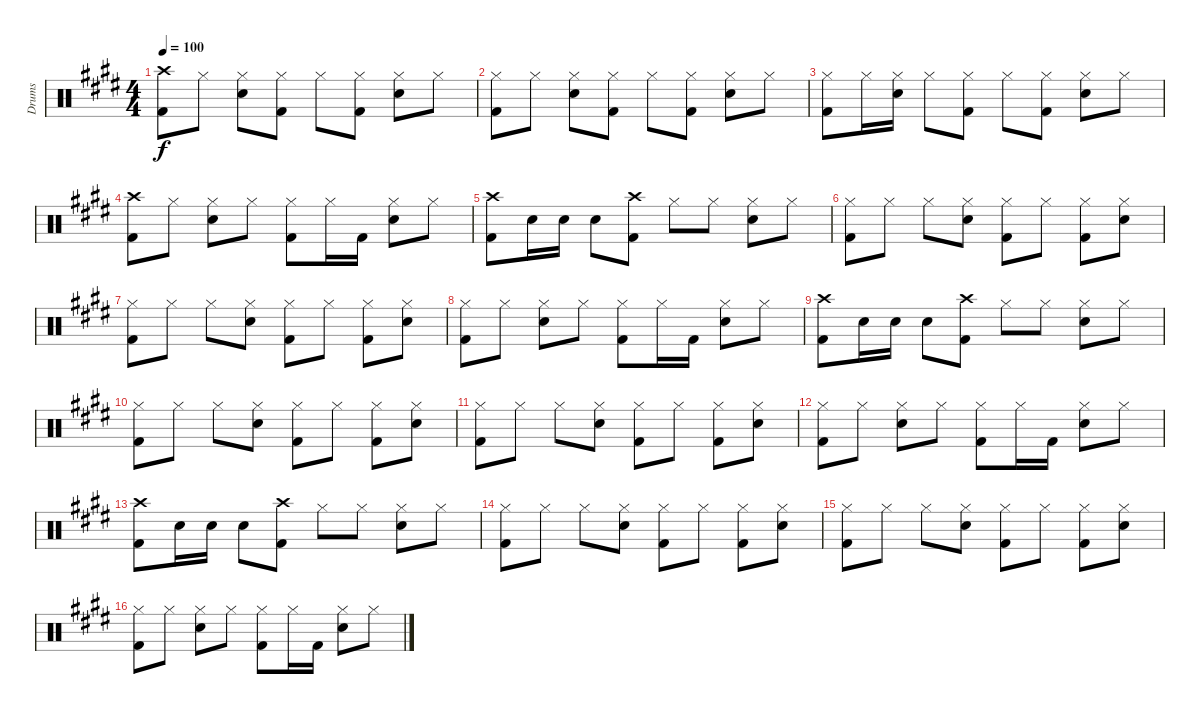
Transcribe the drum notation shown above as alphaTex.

\track ("Drums" "Drums") {instrument percussion}
\staff {score}
\articulation defaults
\ts (4 4)
\tempo 100
\clef neutral
\ks e
("Crash high (hit)" "Kick (hit) 2").8{dy f} "Hi-Hat (closed)".8 ("Hi-Hat (closed)" "Electric Snare (hit)").8 ("Hi-Hat (closed)" "Kick (hit) 2").8 "Hi-Hat (closed)".8 ("Hi-Hat (closed)" "Kick (hit) 2").8 ("Hi-Hat (closed)" "Electric Snare (hit)").8 "Hi-Hat (closed)".8 |
("Hi-Hat (closed)" "Kick (hit) 2").8 "Hi-Hat (closed)".8 ("Hi-Hat (closed)" "Electric Snare (hit)").8 ("Hi-Hat (closed)" "Kick (hit) 2").8 "Hi-Hat (closed)".8 ("Hi-Hat (closed)" "Kick (hit) 2").8 ("Hi-Hat (closed)" "Electric Snare (hit)").8 "Hi-Hat (closed)".8 |
("Hi-Hat (closed)" "Kick (hit) 2").8 "Hi-Hat (closed)".16 ("Hi-Hat (closed)" "Electric Snare (hit)").16 "Hi-Hat (closed)".8 ("Hi-Hat (closed)" "Kick (hit) 2").8 "Hi-Hat (closed)".8 ("Hi-Hat (closed)" "Kick (hit) 2").8 ("Hi-Hat (closed)" "Electric Snare (hit)").8 "Hi-Hat (closed)".8 |
("Crash high (hit)" "Kick (hit) 2").8 "Hi-Hat (closed)".8 ("Hi-Hat (closed)" "Electric Snare (hit)").8 "Hi-Hat (closed)".8 ("Hi-Hat (closed)" "Kick (hit) 2").8 "Hi-Hat (closed)".16 "Kick (hit) 2".16 ("Hi-Hat (closed)" "Electric Snare (hit)").8 "Hi-Hat (closed)".8 |
("Crash high (hit)" "Kick (hit) 2").8 "Electric Snare (hit)".16 "Electric Snare (hit)".16 "Electric Snare (hit)".8 ("Crash high (hit)" "Kick (hit) 2").8 "Hi-Hat (closed)".8 "Hi-Hat (closed)".8 ("Hi-Hat (closed)" "Electric Snare (hit)").8 "Hi-Hat (closed)".8 |
("Hi-Hat (closed)" "Kick (hit) 2").8 "Hi-Hat (closed)".8 "Hi-Hat (closed)".8 ("Hi-Hat (closed)" "Electric Snare (hit)").8 ("Hi-Hat (closed)" "Kick (hit) 2").8 "Hi-Hat (closed)".8 ("Hi-Hat (closed)" "Kick (hit) 2").8 ("Hi-Hat (closed)" "Electric Snare (hit)").8 |
("Hi-Hat (closed)" "Kick (hit) 2").8 "Hi-Hat (closed)".8 "Hi-Hat (closed)".8 ("Hi-Hat (closed)" "Electric Snare (hit)").8 ("Hi-Hat (closed)" "Kick (hit) 2").8 "Hi-Hat (closed)".8 ("Hi-Hat (closed)" "Kick (hit) 2").8 ("Hi-Hat (closed)" "Electric Snare (hit)").8 |
("Hi-Hat (closed)" "Kick (hit) 2").8 "Hi-Hat (closed)".8 ("Hi-Hat (closed)" "Electric Snare (hit)").8 "Hi-Hat (closed)".8 ("Hi-Hat (closed)" "Kick (hit) 2").8 "Hi-Hat (closed)".16 "Kick (hit) 2".16 ("Hi-Hat (closed)" "Electric Snare (hit)").8 "Hi-Hat (closed)".8 |
("Crash high (hit)" "Kick (hit) 2").8 "Electric Snare (hit)".16 "Electric Snare (hit)".16 "Electric Snare (hit)".8 ("Crash high (hit)" "Kick (hit) 2").8 "Hi-Hat (closed)".8 "Hi-Hat (closed)".8 ("Hi-Hat (closed)" "Electric Snare (hit)").8 "Hi-Hat (closed)".8 |
("Hi-Hat (closed)" "Kick (hit) 2").8 "Hi-Hat (closed)".8 "Hi-Hat (closed)".8 ("Hi-Hat (closed)" "Electric Snare (hit)").8 ("Hi-Hat (closed)" "Kick (hit) 2").8 "Hi-Hat (closed)".8 ("Hi-Hat (closed)" "Kick (hit) 2").8 ("Hi-Hat (closed)" "Electric Snare (hit)").8 |
("Hi-Hat (closed)" "Kick (hit) 2").8 "Hi-Hat (closed)".8 "Hi-Hat (closed)".8 ("Hi-Hat (closed)" "Electric Snare (hit)").8 ("Hi-Hat (closed)" "Kick (hit) 2").8 "Hi-Hat (closed)".8 ("Hi-Hat (closed)" "Kick (hit) 2").8 ("Hi-Hat (closed)" "Electric Snare (hit)").8 |
("Hi-Hat (closed)" "Kick (hit) 2").8 "Hi-Hat (closed)".8 ("Hi-Hat (closed)" "Electric Snare (hit)").8 "Hi-Hat (closed)".8 ("Hi-Hat (closed)" "Kick (hit) 2").8 "Hi-Hat (closed)".16 "Kick (hit) 2".16 ("Hi-Hat (closed)" "Electric Snare (hit)").8 "Hi-Hat (closed)".8 |
("Crash high (hit)" "Kick (hit) 2").8 "Electric Snare (hit)".16 "Electric Snare (hit)".16 "Electric Snare (hit)".8 ("Crash high (hit)" "Kick (hit) 2").8 "Hi-Hat (closed)".8 "Hi-Hat (closed)".8 ("Hi-Hat (closed)" "Electric Snare (hit)").8 "Hi-Hat (closed)".8 |
("Hi-Hat (closed)" "Kick (hit) 2").8 "Hi-Hat (closed)".8 "Hi-Hat (closed)".8 ("Hi-Hat (closed)" "Electric Snare (hit)").8 ("Hi-Hat (closed)" "Kick (hit) 2").8 "Hi-Hat (closed)".8 ("Hi-Hat (closed)" "Kick (hit) 2").8 ("Hi-Hat (closed)" "Electric Snare (hit)").8 |
("Hi-Hat (closed)" "Kick (hit) 2").8 "Hi-Hat (closed)".8 "Hi-Hat (closed)".8 ("Hi-Hat (closed)" "Electric Snare (hit)").8 ("Hi-Hat (closed)" "Kick (hit) 2").8 "Hi-Hat (closed)".8 ("Hi-Hat (closed)" "Kick (hit) 2").8 ("Hi-Hat (closed)" "Electric Snare (hit)").8 |
("Hi-Hat (closed)" "Kick (hit) 2").8 "Hi-Hat (closed)".8 ("Hi-Hat (closed)" "Electric Snare (hit)").8 "Hi-Hat (closed)".8 ("Hi-Hat (closed)" "Kick (hit) 2").8 "Hi-Hat (closed)".16 "Kick (hit) 2".16 ("Hi-Hat (closed)" "Electric Snare (hit)").8 "Hi-Hat (closed)".8
